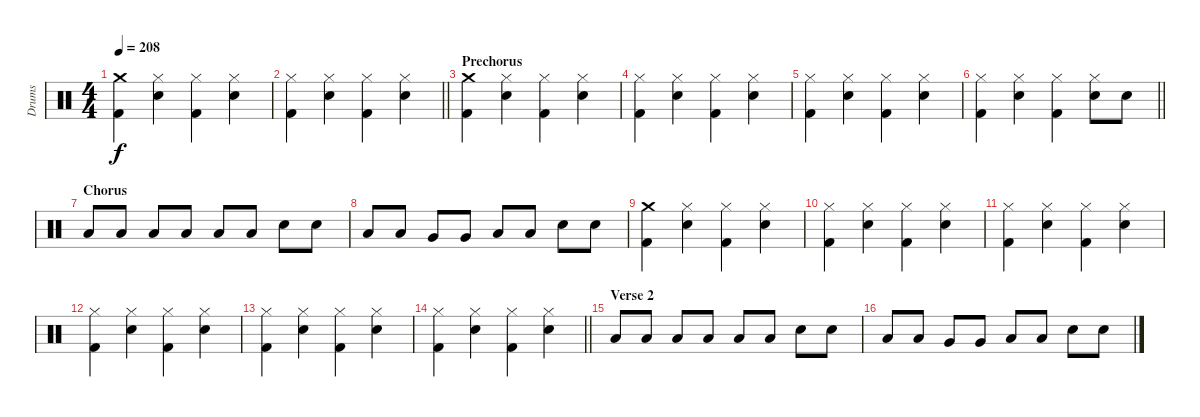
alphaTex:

\track ("Drums" "Drums") {instrument percussion}
\staff {score}
\articulation defaults
\ts (4 4)
\tempo 208
\clef neutral
\ks c
("Crash medium (hit)" "Kick (hit) 2").4{dy f} ("Hi-Hat (closed)" "Snare (hit) 2").4 ("Hi-Hat (closed)" "Kick (hit) 2").4 ("Hi-Hat (closed)" "Snare (hit) 2").4 |
\barLineRight lightlight
("Hi-Hat (closed)" "Kick (hit) 2").4 ("Hi-Hat (closed)" "Snare (hit) 2").4 ("Hi-Hat (closed)" "Kick (hit) 2").4 ("Hi-Hat (closed)" "Snare (hit) 2").4 |
\section ("" "Prechorus")
("Crash medium (hit)" "Kick (hit) 2").4 ("Hi-Hat (closed)" "Snare (hit) 2").4 ("Hi-Hat (closed)" "Kick (hit) 2").4 ("Hi-Hat (closed)" "Snare (hit) 2").4 |
("Hi-Hat (closed)" "Kick (hit) 2").4 ("Hi-Hat (closed)" "Snare (hit) 2").4 ("Hi-Hat (closed)" "Kick (hit) 2").4 ("Hi-Hat (closed)" "Snare (hit) 2").4 |
("Hi-Hat (closed)" "Kick (hit) 2").4 ("Hi-Hat (closed)" "Snare (hit) 2").4 ("Hi-Hat (closed)" "Kick (hit) 2").4 ("Hi-Hat (closed)" "Snare (hit) 2").4 |
\barLineRight lightlight
("Hi-Hat (closed)" "Kick (hit) 2").4 ("Hi-Hat (closed)" "Snare (hit) 2").4 ("Hi-Hat (closed)" "Kick (hit) 2").4 ("Hi-Hat (closed)" "Snare (hit) 2").8 "Snare (hit) 2".8 |
\section ("" "Chorus")
"Low Floor Tom (hit)".8 "Low Floor Tom (hit)".8 "Low Tom (hit)".8 "Low Tom (hit)".8 "Low Floor Tom (hit)".8 "Low Floor Tom (hit)".8 "Snare (hit) 2".8 "Snare (hit) 2".8 |
"Low Floor Tom (hit)".8 "Low Floor Tom (hit)".8 "Very Low Tom (hit)".8 "Very Low Tom (hit)".8 "Low Floor Tom (hit)".8 "Low Floor Tom (hit)".8 "Snare (hit) 2".8 "Snare (hit) 2".8 |
("Crash medium (hit)" "Kick (hit) 2").4 ("Hi-Hat (closed)" "Snare (hit) 2").4 ("Hi-Hat (closed)" "Kick (hit) 2").4 ("Hi-Hat (closed)" "Snare (hit) 2").4 |
("Hi-Hat (closed)" "Kick (hit) 2").4 ("Hi-Hat (closed)" "Snare (hit) 2").4 ("Hi-Hat (closed)" "Kick (hit) 2").4 ("Hi-Hat (closed)" "Snare (hit) 2").4 |
("Hi-Hat (closed)" "Kick (hit) 2").4 ("Hi-Hat (closed)" "Snare (hit) 2").4 ("Hi-Hat (closed)" "Kick (hit) 2").4 ("Hi-Hat (closed)" "Snare (hit) 2").4 |
("Hi-Hat (closed)" "Kick (hit) 2").4 ("Hi-Hat (closed)" "Snare (hit) 2").4 ("Hi-Hat (closed)" "Kick (hit) 2").4 ("Hi-Hat (closed)" "Snare (hit) 2").4 |
("Hi-Hat (closed)" "Kick (hit) 2").4 ("Hi-Hat (closed)" "Snare (hit) 2").4 ("Hi-Hat (closed)" "Kick (hit) 2").4 ("Hi-Hat (closed)" "Snare (hit) 2").4 |
\barLineRight lightlight
("Hi-Hat (closed)" "Kick (hit) 2").4 ("Hi-Hat (closed)" "Snare (hit) 2").4 ("Hi-Hat (closed)" "Kick (hit) 2").4 ("Hi-Hat (closed)" "Snare (hit) 2").4 |
\section ("" "Verse 2")
"Low Floor Tom (hit)".8 "Low Floor Tom (hit)".8 "Low Tom (hit)".8 "Low Tom (hit)".8 "Low Floor Tom (hit)".8 "Low Floor Tom (hit)".8 "Snare (hit) 2".8 "Snare (hit) 2".8 |
"Low Floor Tom (hit)".8 "Low Floor Tom (hit)".8 "Very Low Tom (hit)".8 "Very Low Tom (hit)".8 "Low Floor Tom (hit)".8 "Low Floor Tom (hit)".8 "Snare (hit) 2".8 "Snare (hit) 2".8
